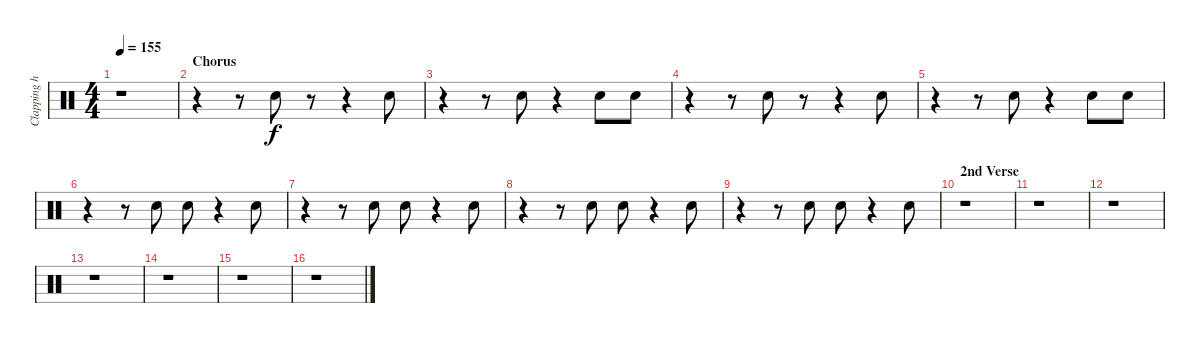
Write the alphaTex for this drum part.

\track ("Clapping hands" "Clapping h") {instrument percussion}
\staff {score}
\articulation defaults
\ts (4 4)
\tempo 155
\clef neutral
\ks c
r.1{dy mf} |
\section ("" "Chorus")
r.4 r.8 "Hand Clap (hit)".8{dy f} r.8 r.4 "Hand Clap (hit)".8 |
r.4 r.8 "Hand Clap (hit)".8 r.4 "Hand Clap (hit)".8 "Hand Clap (hit)".8 |
r.4 r.8 "Hand Clap (hit)".8 r.8 r.4 "Hand Clap (hit)".8 |
r.4 r.8 "Hand Clap (hit)".8 r.4 "Hand Clap (hit)".8 "Hand Clap (hit)".8 |
r.4 r.8 "Hand Clap (hit)".8 "Hand Clap (hit)".8 r.4 "Hand Clap (hit)".8 |
r.4 r.8 "Hand Clap (hit)".8 "Hand Clap (hit)".8 r.4 "Hand Clap (hit)".8 |
r.4 r.8 "Hand Clap (hit)".8 "Hand Clap (hit)".8 r.4 "Hand Clap (hit)".8 |
r.4 r.8 "Hand Clap (hit)".8 "Hand Clap (hit)".8 r.4 "Hand Clap (hit)".8 |
\section ("" "2nd Verse")
r.1 |
r.1 |
r.1 |
r.1 |
r.1 |
r.1 |
r.1
